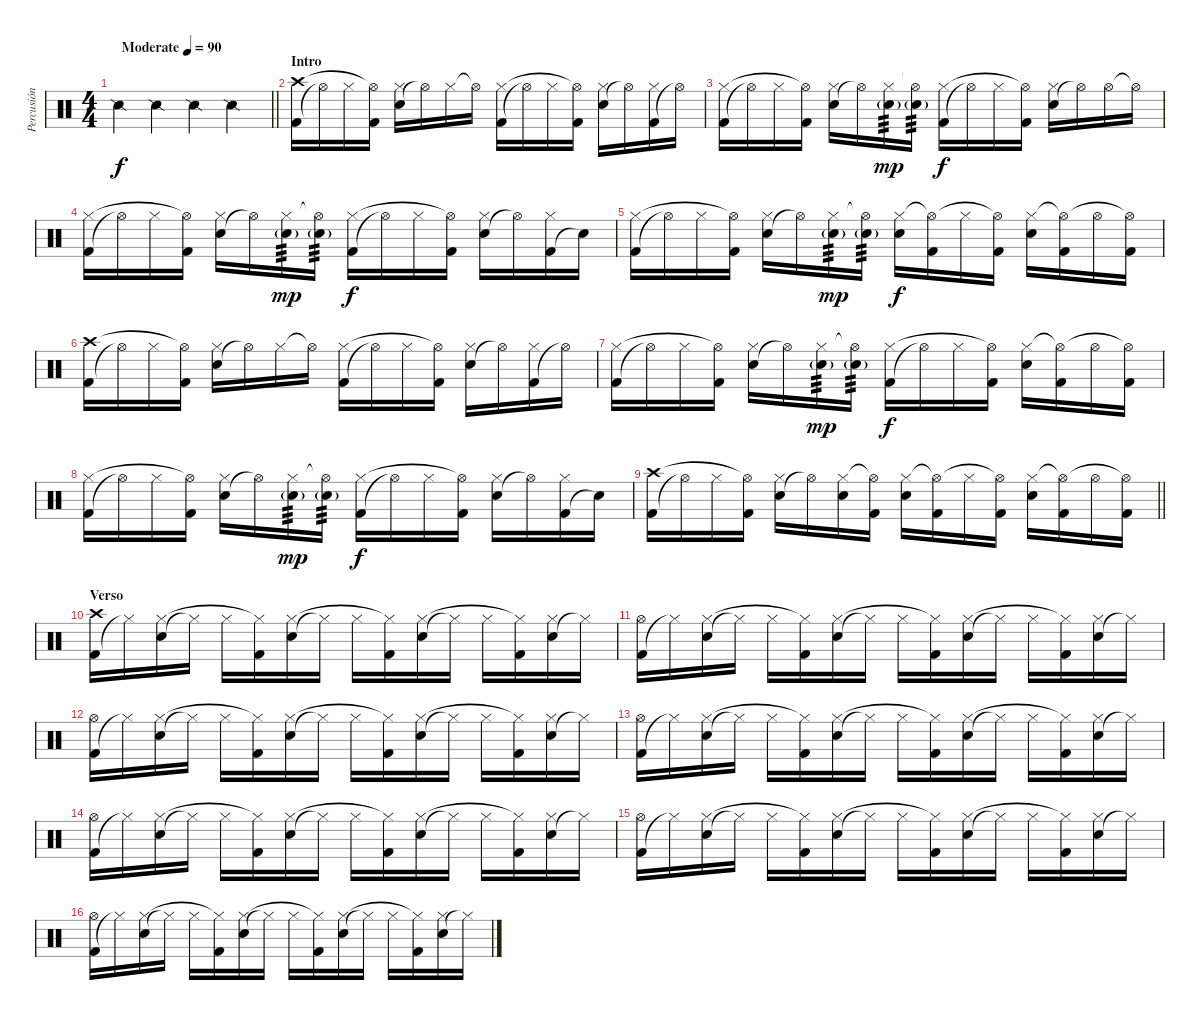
\track ("Percusión" "Percusión") {instrument percussion}
\staff {score}
\articulation defaults
\ts (4 4)
\tempo (90 "Moderate")
\clef neutral
\barLineRight lightlight
\ks c "Snare (side stick) 2".4{dy f} "Snare (side stick) 2".4 "Snare (side stick) 2".4 "Snare (side stick) 2".4
|
\section ("" "Intro")
("Kick (hit) 2" "Crash high (hit)").16 "Hi-Hat (open)"{t}.16 "Hi-Hat (closed)".16 ("Kick (hit) 2" "Hi-Hat (open)"{t}).16 ("Snare (hit) 2" "Hi-Hat (closed)").16 "Hi-Hat (open)"{t}.16 "Hi-Hat (closed)".16 "Hi-Hat (open)"{t}.16 ("Kick (hit) 2" "Hi-Hat (closed)").16 "Hi-Hat (open)"{t}.16 "Hi-Hat (closed)".16 ("Kick (hit) 2" "Hi-Hat (open)"{t}).16 ("Snare (hit) 2" "Hi-Hat (closed)").16 "Hi-Hat (open)"{t}.16 ("Kick (hit) 2" "Hi-Hat (closed)").16 "Hi-Hat (open)"{t}.16 |
("Kick (hit) 2" "Hi-Hat (closed)").16 "Hi-Hat (open)"{t}.16 "Hi-Hat (closed)".16 ("Kick (hit) 2" "Hi-Hat (open)"{t}).16 ("Snare (hit) 2" "Hi-Hat (closed)").16 "Hi-Hat (open)"{t}.16 ("Snare (hit) 2"{g} "Hi-Hat (closed)").16{tp 3 dy mp} ("Snare (hit) 2"{g} "Hi-Hat (open)"{t}).16{tp 3} ("Kick (hit) 2" "Hi-Hat (closed)").16{dy f} "Hi-Hat (open)"{t}.16 "Hi-Hat (closed)".16 ("Kick (hit) 2" "Hi-Hat (open)"{t}).16 ("Snare (hit) 2" "Hi-Hat (closed)").16 "Hi-Hat (open)"{t}.16 "Hi-Hat (open)".16 "Hi-Hat (open)"{t}.16 |
("Kick (hit) 2" "Hi-Hat (closed)").16 "Hi-Hat (open)"{t}.16 "Hi-Hat (closed)".16 ("Kick (hit) 2" "Hi-Hat (open)"{t}).16 ("Snare (hit) 2" "Hi-Hat (closed)").16 "Hi-Hat (open)"{t}.16 ("Snare (hit) 2"{g} "Hi-Hat (closed)").16{tp 3 dy mp} ("Snare (hit) 2"{g} "Hi-Hat (open)"{t}).16{tp 3} ("Kick (hit) 2" "Hi-Hat (closed)").16{dy f} "Hi-Hat (open)"{t}.16 "Hi-Hat (closed)".16 ("Kick (hit) 2" "Hi-Hat (open)"{t}).16 ("Snare (hit) 2" "Hi-Hat (closed)").16 "Hi-Hat (open)"{t}.16 ("Kick (hit) 2" "Hi-Hat (closed)").16 "Snare (hit)"{t}.16 |
("Kick (hit) 2" "Hi-Hat (closed)").16 "Hi-Hat (open)"{t}.16 "Hi-Hat (closed)".16 ("Kick (hit) 2" "Hi-Hat (open)"{t}).16 ("Snare (hit) 2" "Hi-Hat (closed)").16 "Hi-Hat (open)"{t}.16 ("Snare (hit) 2"{g} "Hi-Hat (closed)").16{tp 3 dy mp} ("Snare (hit) 2"{g} "Hi-Hat (open)"{t}).16{tp 3} ("Snare (hit) 2" "Hi-Hat (closed)").16{dy f} ("Kick (hit) 2" "Hi-Hat (open)"{t}).16 "Hi-Hat (closed)".16 ("Kick (hit) 2" "Hi-Hat (open)"{t}).16 ("Snare (hit) 2" "Hi-Hat (closed)").16 ("Kick (hit) 2" "Hi-Hat (open)"{t}).16 "Hi-Hat (open)".16 ("Kick (hit) 2" "Hi-Hat (open)"{t}).16 |
("Kick (hit) 2" "Crash high (hit)").16 "Hi-Hat (open)"{t}.16 "Hi-Hat (closed)".16 ("Kick (hit) 2" "Hi-Hat (open)"{t}).16 ("Snare (hit) 2" "Hi-Hat (closed)").16 "Hi-Hat (open)"{t}.16 "Hi-Hat (closed)".16 "Hi-Hat (open)"{t}.16 ("Kick (hit) 2" "Hi-Hat (closed)").16 "Hi-Hat (open)"{t}.16 "Hi-Hat (closed)".16 ("Kick (hit) 2" "Hi-Hat (open)"{t}).16 ("Snare (hit) 2" "Hi-Hat (closed)").16 "Hi-Hat (open)"{t}.16 ("Kick (hit) 2" "Hi-Hat (closed)").16 "Hi-Hat (open)"{t}.16 |
("Kick (hit) 2" "Hi-Hat (closed)").16 "Hi-Hat (open)"{t}.16 "Hi-Hat (closed)".16 ("Kick (hit) 2" "Hi-Hat (open)"{t}).16 ("Snare (hit) 2" "Hi-Hat (closed)").16 "Hi-Hat (open)"{t}.16 ("Snare (hit) 2"{g} "Hi-Hat (closed)").16{tp 3 dy mp} ("Snare (hit) 2"{g} "Hi-Hat (open)"{t}).16{tp 3} ("Kick (hit) 2" "Hi-Hat (closed)").16{dy f} "Hi-Hat (open)"{t}.16 "Hi-Hat (closed)".16 ("Kick (hit) 2" "Hi-Hat (open)"{t}).16 ("Snare (hit) 2" "Hi-Hat (closed)").16 ("Kick (hit) 2" "Hi-Hat (open)"{t}).16 "Hi-Hat (open)".16 ("Kick (hit) 2" "Hi-Hat (open)"{t}).16 |
("Kick (hit) 2" "Hi-Hat (closed)").16 "Hi-Hat (open)"{t}.16 "Hi-Hat (closed)".16 ("Kick (hit) 2" "Hi-Hat (open)"{t}).16 ("Snare (hit) 2" "Hi-Hat (closed)").16 "Hi-Hat (open)"{t}.16 ("Snare (hit) 2"{g} "Hi-Hat (closed)").16{tp 3 dy mp} ("Snare (hit) 2"{g} "Hi-Hat (open)"{t}).16{tp 3} ("Kick (hit) 2" "Hi-Hat (closed)").16{dy f} "Hi-Hat (open)"{t}.16 "Hi-Hat (closed)".16 ("Kick (hit) 2" "Hi-Hat (open)"{t}).16 ("Snare (hit) 2" "Hi-Hat (closed)").16 "Hi-Hat (open)"{t}.16 ("Kick (hit) 2" "Hi-Hat (closed)").16 "Snare (hit)"{t}.16 |
\barLineRight lightlight
("Kick (hit) 2" "Crash high (hit)").16 "Hi-Hat (open)"{t}.16 "Hi-Hat (closed)".16 ("Kick (hit) 2" "Hi-Hat (open)"{t}).16 ("Snare (hit) 2" "Hi-Hat (closed)").16 "Hi-Hat (open)"{t}.16 ("Snare (hit) 2" "Hi-Hat (closed)").16 ("Kick (hit) 2" "Hi-Hat (open)"{t}).16 ("Snare (hit) 2" "Hi-Hat (closed)").16 ("Kick (hit) 2" "Hi-Hat (open)"{t}).16 "Hi-Hat (closed)".16 ("Kick (hit) 2" "Hi-Hat (open)"{t}).16 ("Snare (hit) 2" "Hi-Hat (closed)").16 ("Kick (hit) 2" "Hi-Hat (open)"{t}).16 "Hi-Hat (open)".16 ("Kick (hit) 2" "Hi-Hat (open)"{t}).16 |
\section ("" "Verso")
("Kick (hit) 2" "Crash high (hit)").16 "Hi-Hat (closed)"{t}.16 ("Snare (hit) 2" "Hi-Hat (closed)").16 "Hi-Hat (closed)"{t}.16 "Hi-Hat (closed)".16 ("Kick (hit) 2" "Hi-Hat (closed)"{t}).16 ("Snare (hit) 2" "Hi-Hat (closed)").16 "Hi-Hat (closed)"{t}.16 "Hi-Hat (closed)".16 ("Kick (hit) 2" "Hi-Hat (closed)"{t}).16 ("Snare (hit) 2" "Hi-Hat (closed)").16 "Hi-Hat (closed)"{t}.16 "Hi-Hat (closed)".16 ("Kick (hit) 2" "Hi-Hat (closed)"{t}).16 ("Snare (hit) 2" "Hi-Hat (closed)").16 "Hi-Hat (closed)"{t}.16 |
("Kick (hit) 2" "Hi-Hat (open)").16 "Hi-Hat (closed)"{t}.16 ("Snare (hit) 2" "Hi-Hat (closed)").16 "Hi-Hat (closed)"{t}.16 "Hi-Hat (closed)".16 ("Kick (hit) 2" "Hi-Hat (closed)"{t}).16 ("Snare (hit) 2" "Hi-Hat (closed)").16 "Hi-Hat (closed)"{t}.16 "Hi-Hat (closed)".16 ("Kick (hit) 2" "Hi-Hat (closed)"{t}).16 ("Snare (hit) 2" "Hi-Hat (closed)").16 "Hi-Hat (closed)"{t}.16 "Hi-Hat (closed)".16 ("Kick (hit) 2" "Hi-Hat (closed)"{t}).16 ("Snare (hit) 2" "Hi-Hat (closed)").16 "Hi-Hat (closed)"{t}.16 |
("Kick (hit) 2" "Hi-Hat (open)").16 "Hi-Hat (closed)"{t}.16 ("Snare (hit) 2" "Hi-Hat (closed)").16 "Hi-Hat (closed)"{t}.16 "Hi-Hat (closed)".16 ("Kick (hit) 2" "Hi-Hat (closed)"{t}).16 ("Snare (hit) 2" "Hi-Hat (closed)").16 "Hi-Hat (closed)"{t}.16 "Hi-Hat (closed)".16 ("Kick (hit) 2" "Hi-Hat (closed)"{t}).16 ("Snare (hit) 2" "Hi-Hat (closed)").16 "Hi-Hat (closed)"{t}.16 "Hi-Hat (closed)".16 ("Kick (hit) 2" "Hi-Hat (closed)"{t}).16 ("Snare (hit) 2" "Hi-Hat (closed)").16 "Hi-Hat (closed)"{t}.16 |
("Kick (hit) 2" "Hi-Hat (open)").16 "Hi-Hat (closed)"{t}.16 ("Snare (hit) 2" "Hi-Hat (closed)").16 "Hi-Hat (closed)"{t}.16 "Hi-Hat (closed)".16 ("Kick (hit) 2" "Hi-Hat (closed)"{t}).16 ("Snare (hit) 2" "Hi-Hat (closed)").16 "Hi-Hat (closed)"{t}.16 "Hi-Hat (closed)".16 ("Kick (hit) 2" "Hi-Hat (closed)"{t}).16 ("Snare (hit) 2" "Hi-Hat (closed)").16 "Hi-Hat (closed)"{t}.16 "Hi-Hat (closed)".16 ("Kick (hit) 2" "Hi-Hat (closed)"{t}).16 ("Snare (hit) 2" "Hi-Hat (closed)").16 "Hi-Hat (closed)"{t}.16 |
("Kick (hit) 2" "Hi-Hat (open)").16 "Hi-Hat (closed)"{t}.16 ("Snare (hit) 2" "Hi-Hat (closed)").16 "Hi-Hat (closed)"{t}.16 "Hi-Hat (closed)".16 ("Kick (hit) 2" "Hi-Hat (closed)"{t}).16 ("Snare (hit) 2" "Hi-Hat (closed)").16 "Hi-Hat (closed)"{t}.16 "Hi-Hat (closed)".16 ("Kick (hit) 2" "Hi-Hat (closed)"{t}).16 ("Snare (hit) 2" "Hi-Hat (closed)").16 "Hi-Hat (closed)"{t}.16 "Hi-Hat (closed)".16 ("Kick (hit) 2" "Hi-Hat (closed)"{t}).16 ("Snare (hit) 2" "Hi-Hat (closed)").16 "Hi-Hat (closed)"{t}.16 |
("Kick (hit) 2" "Hi-Hat (open)").16 "Hi-Hat (closed)"{t}.16 ("Snare (hit) 2" "Hi-Hat (closed)").16 "Hi-Hat (closed)"{t}.16 "Hi-Hat (closed)".16 ("Kick (hit) 2" "Hi-Hat (closed)"{t}).16 ("Snare (hit) 2" "Hi-Hat (closed)").16 "Hi-Hat (closed)"{t}.16 "Hi-Hat (closed)".16 ("Kick (hit) 2" "Hi-Hat (closed)"{t}).16 ("Snare (hit) 2" "Hi-Hat (closed)").16 "Hi-Hat (closed)"{t}.16 "Hi-Hat (closed)".16 ("Kick (hit) 2" "Hi-Hat (closed)"{t}).16 ("Snare (hit) 2" "Hi-Hat (closed)").16 "Hi-Hat (closed)"{t}.16 |
("Kick (hit) 2" "Hi-Hat (open)").16 "Hi-Hat (closed)"{t}.16 ("Snare (hit) 2" "Hi-Hat (closed)").16 "Hi-Hat (closed)"{t}.16 "Hi-Hat (closed)".16 ("Kick (hit) 2" "Hi-Hat (closed)"{t}).16 ("Snare (hit) 2" "Hi-Hat (closed)").16 "Hi-Hat (closed)"{t}.16 "Hi-Hat (closed)".16 ("Kick (hit) 2" "Hi-Hat (closed)"{t}).16 ("Snare (hit) 2" "Hi-Hat (closed)").16 "Hi-Hat (closed)"{t}.16 "Hi-Hat (closed)".16 ("Kick (hit) 2" "Hi-Hat (closed)"{t}).16 ("Snare (hit) 2" "Hi-Hat (closed)").16 "Hi-Hat (closed)"{t}.16
